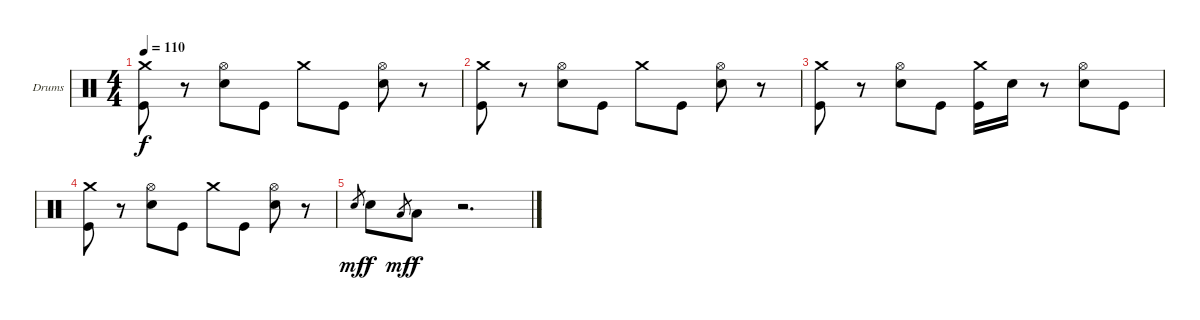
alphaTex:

\bracketExtendMode groupsimilarinstruments
\firstSystemTrackNameOrientation horizontal
\otherSystemsTrackNameOrientation horizontal
\track ("Drumkit" "Drums") {instrument percussion}
\staff {score}
\articulation defaults
\ts (4 4)
\tempo 110
\clef neutral
\ks c
("Crash medium (hit)" "Kick (hit)").8{dy f} r.8 ("Hi-Hat (open)" "Snare (hit) 2").8 "Kick (hit)".8 "Crash medium (hit)".8 "Kick (hit)".8 ("Hi-Hat (open)" "Snare (hit) 2").8 r.8 |
("Crash medium (hit)" "Kick (hit)").8 r.8 ("Hi-Hat (open)" "Snare (hit) 2").8 "Kick (hit)".8 "Crash medium (hit)".8 "Kick (hit)".8 ("Hi-Hat (open)" "Snare (hit) 2").8 r.8 |
("Crash medium (hit)" "Kick (hit)").8 r.8 ("Hi-Hat (open)" "Snare (hit) 2").8 "Kick (hit)".8 ("Crash medium (hit)" "Kick (hit)").16 "Snare (hit) 2".16 r.8 ("Hi-Hat (open)" "Snare (hit) 2").8 "Kick (hit)".8 |
("Crash medium (hit)" "Kick (hit)").8 r.8 ("Hi-Hat (open)" "Snare (hit) 2").8 "Kick (hit)".8 "Crash medium (hit)".8 "Kick (hit)".8 ("Hi-Hat (open)" "Snare (hit) 2").8 r.8 |
"Snare (hit) 2".8{gr dy mf} "Snare (hit) 2".8{dy f} "Low Tom (hit)".8{gr dy mf} "Low Tom (hit)".8{dy f} r.2{d}
